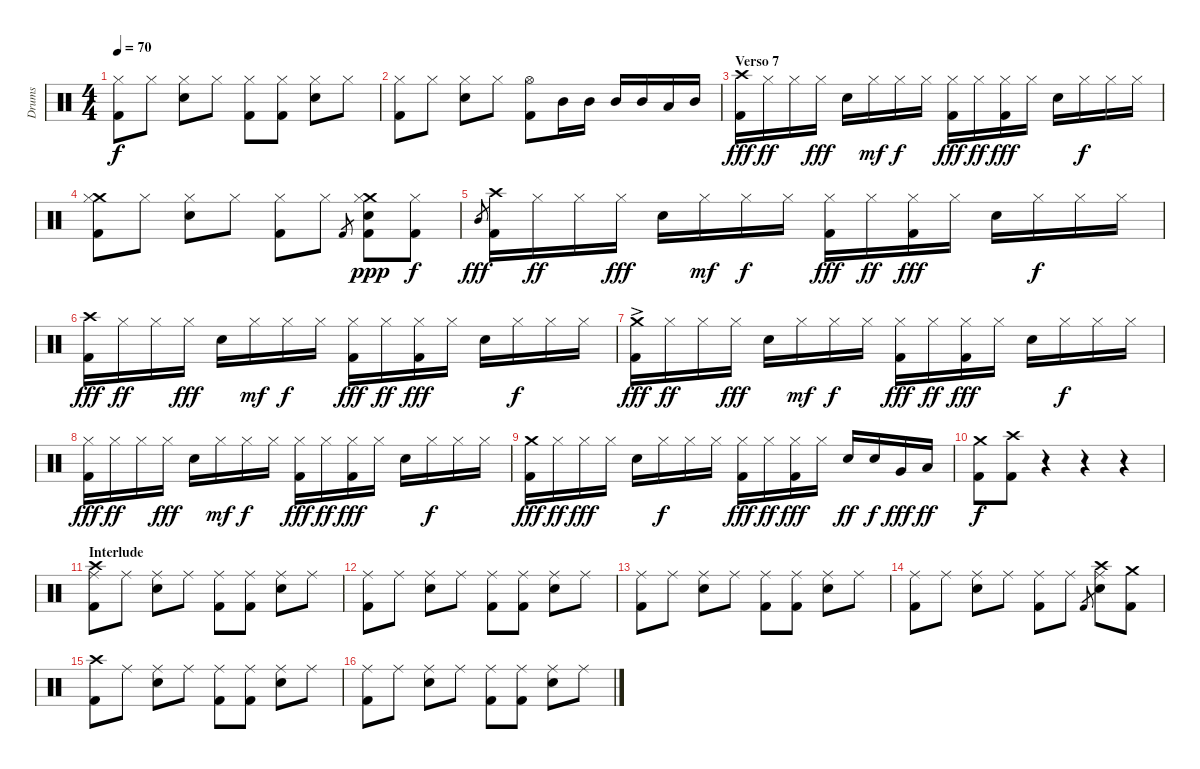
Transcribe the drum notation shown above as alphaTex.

\track ("Drums" "Drums") {instrument percussion}
\staff {score}
\articulation defaults
\ts (4 4)
\tempo 70
\clef neutral
\ks c
("Hi-Hat (closed)" "Kick (hit) 2").8{dy f} "Hi-Hat (closed)".8 ("Hi-Hat (closed)" "Electric Snare (hit)").8 "Hi-Hat (closed)".8 ("Hi-Hat (closed)" "Kick (hit) 2").8 ("Hi-Hat (closed)" "Kick (hit) 2").8 ("Hi-Hat (closed)" "Electric Snare (hit)").8 "Hi-Hat (closed)".8 |
("Hi-Hat (closed)" "Kick (hit) 2").8 "Hi-Hat (closed)".8 ("Hi-Hat (closed)" "Electric Snare (hit)").8 "Hi-Hat (closed)".8 ("Hi-Hat (open)" "Kick (hit) 2").8 "Mid Tom (hit)".16 "Mid Tom (hit)".16 "Mid Tom (hit)".16 "Mid Tom (hit)".16 "Low Tom (hit)".16 "Mid Tom (hit)".16 |
\section ("" "Verso 7")
("Crash high (hit)" "Kick (hit) 2").16{dy fff} "Hi-Hat (closed)".16{dy ff} "Hi-Hat (closed)".16 "Hi-Hat (closed)".16{dy fff} "Electric Snare (hit)".16 "Hi-Hat (closed)".16{dy mf} "Hi-Hat (closed)".16{dy f} "Hi-Hat (closed)".16 ("Hi-Hat (closed)" "Kick (hit) 2").16{dy fff} "Hi-Hat (closed)".16{dy ff} ("Hi-Hat (closed)" "Kick (hit) 2").16{dy fff} "Hi-Hat (closed)".16 "Electric Snare (hit)".16 "Hi-Hat (closed)".16{dy f} "Hi-Hat (closed)".16 "Hi-Hat (closed)".16 |
("Crash medium (hit)" "Hi-Hat (closed)" "Kick (hit) 2").8 "Hi-Hat (closed)".8 ("Hi-Hat (closed)" "Electric Snare (hit)").8 "Hi-Hat (closed)".8 ("Hi-Hat (closed)" "Kick (hit) 2").8 "Hi-Hat (closed)".8 "Kick (hit) 2".8{gr} ("Crash medium (hit)" "Hi-Hat (closed)" "Electric Snare (hit)" "Kick (hit) 2").8{dy ppp} ("Hi-Hat (closed)" "Kick (hit) 2").8{dy f} |
"Mid Tom (hit)".8{gr dy fff} ("Crash high (hit)" "Kick (hit) 2").16 "Hi-Hat (closed)".16{dy ff} "Hi-Hat (closed)".16 "Hi-Hat (closed)".16{dy fff} "Electric Snare (hit)".16 "Hi-Hat (closed)".16{dy mf} "Hi-Hat (closed)".16{dy f} "Hi-Hat (closed)".16 ("Hi-Hat (closed)" "Kick (hit) 2").16{dy fff} "Hi-Hat (closed)".16{dy ff} ("Hi-Hat (closed)" "Kick (hit) 2").16{dy fff} "Hi-Hat (closed)".16 "Electric Snare (hit)".16 "Hi-Hat (closed)".16{dy f} "Hi-Hat (closed)".16 "Hi-Hat (closed)".16 |
("Crash high (hit)" "Kick (hit) 2").16{dy fff} "Hi-Hat (closed)".16{dy ff} "Hi-Hat (closed)".16 "Hi-Hat (closed)".16{dy fff} "Electric Snare (hit)".16 "Hi-Hat (closed)".16{dy mf} "Hi-Hat (closed)".16{dy f} "Hi-Hat (closed)".16 ("Hi-Hat (closed)" "Kick (hit) 2").16{dy fff} "Hi-Hat (closed)".16{dy ff} ("Hi-Hat (closed)" "Kick (hit) 2").16{dy fff} "Hi-Hat (closed)".16 "Electric Snare (hit)".16 "Hi-Hat (closed)".16{dy f} "Hi-Hat (closed)".16 "Hi-Hat (closed)".16 |
("Crash medium (hit)"{ac} "Kick (hit) 2").16{dy fff} "Hi-Hat (closed)".16{dy ff} "Hi-Hat (closed)".16 "Hi-Hat (closed)".16{dy fff} "Electric Snare (hit)".16 "Hi-Hat (closed)".16{dy mf} "Hi-Hat (closed)".16{dy f} "Hi-Hat (closed)".16 ("Hi-Hat (closed)" "Kick (hit) 2").16{dy fff} "Hi-Hat (closed)".16{dy ff} ("Hi-Hat (closed)" "Kick (hit) 2").16{dy fff} "Hi-Hat (closed)".16 "Electric Snare (hit)".16 "Hi-Hat (closed)".16{dy f} "Hi-Hat (closed)".16 "Hi-Hat (closed)".16 |
("Hi-Hat (closed)" "Kick (hit) 2").16{dy fff} "Hi-Hat (closed)".16{dy ff} "Hi-Hat (closed)".16 "Hi-Hat (closed)".16{dy fff} "Electric Snare (hit)".16 "Hi-Hat (closed)".16{dy mf} "Hi-Hat (closed)".16{dy f} "Hi-Hat (closed)".16 ("Hi-Hat (closed)" "Kick (hit) 2").16{dy fff} "Hi-Hat (closed)".16{dy ff} ("Hi-Hat (closed)" "Kick (hit) 2").16{dy fff} "Hi-Hat (closed)".16 "Electric Snare (hit)".16 "Hi-Hat (closed)".16{dy f} "Hi-Hat (closed)".16 "Hi-Hat (closed)".16 |
("Crash medium (hit)" "Kick (hit) 2").16{dy fff} "Hi-Hat (closed)".16{dy ff} "Hi-Hat (closed)".16{dy fff} "Hi-Hat (closed)".16 "Electric Snare (hit)".16 "Hi-Hat (closed)".16{dy f} "Hi-Hat (closed)".16 "Hi-Hat (closed)".16 ("Hi-Hat (closed)" "Kick (hit) 2").16{dy fff} "Hi-Hat (closed)".16{dy ff} ("Hi-Hat (closed)" "Kick (hit) 2").16{dy fff} "Hi-Hat (closed)".16 "Electric Snare (hit)".16{dy ff} "Electric Snare (hit)".16{dy f} "Very Low Tom (hit)".16{dy fff} "Low Tom (hit)".16{dy ff} |
("Crash medium (hit)" "Kick (hit) 2").8{dy f} ("Crash high (hit)" "Kick (hit) 2").8 r.4 r.4 r.4 |
\section ("" "Interlude")
("Crash high (hit)" "Ride (middle)" "Kick (hit) 2").8 "Ride (middle)".8 ("Ride (middle)" "Electric Snare (hit)").8 "Ride (middle)".8 ("Ride (middle)" "Kick (hit) 2").8 ("Ride (middle)" "Kick (hit) 2").8 ("Ride (middle)" "Electric Snare (hit)").8 "Ride (middle)".8 |
("Ride (middle)" "Kick (hit) 2").8 "Ride (middle)".8 ("Ride (middle)" "Electric Snare (hit)").8 "Ride (middle)".8 ("Ride (middle)" "Kick (hit) 2").8 ("Ride (middle)" "Kick (hit) 2").8 ("Ride (middle)" "Electric Snare (hit)").8 "Ride (middle)".8 |
("Ride (middle)" "Kick (hit) 2").8 "Ride (middle)".8 ("Ride (middle)" "Electric Snare (hit)").8 "Ride (middle)".8 ("Ride (middle)" "Kick (hit) 2").8 ("Ride (middle)" "Kick (hit) 2").8 ("Ride (middle)" "Electric Snare (hit)").8 "Ride (middle)".8 |
("Ride (middle)" "Kick (hit) 2").8 "Ride (middle)".8 ("Ride (middle)" "Electric Snare (hit)").8 "Ride (middle)".8 ("Ride (middle)" "Kick (hit) 2").8 "Ride (middle)".8 "Kick (hit) 2".8{gr} ("Crash high (hit)" "Ride (middle)" "Electric Snare (hit)").8 ("Crash medium (hit)" "Kick (hit) 2").8 |
("Crash high (hit)" "Kick (hit) 2").8 "Ride (middle)".8 ("Ride (middle)" "Electric Snare (hit)").8 "Ride (middle)".8 ("Ride (middle)" "Kick (hit) 2").8 ("Ride (middle)" "Kick (hit) 2").8 ("Ride (middle)" "Electric Snare (hit)").8 "Ride (middle)".8 |
("Ride (middle)" "Kick (hit) 2").8 "Ride (middle)".8 ("Ride (middle)" "Electric Snare (hit)").8 "Ride (middle)".8 ("Ride (middle)" "Kick (hit) 2").8 ("Ride (middle)" "Kick (hit) 2").8 ("Ride (middle)" "Electric Snare (hit)").8 "Ride (middle)".8
